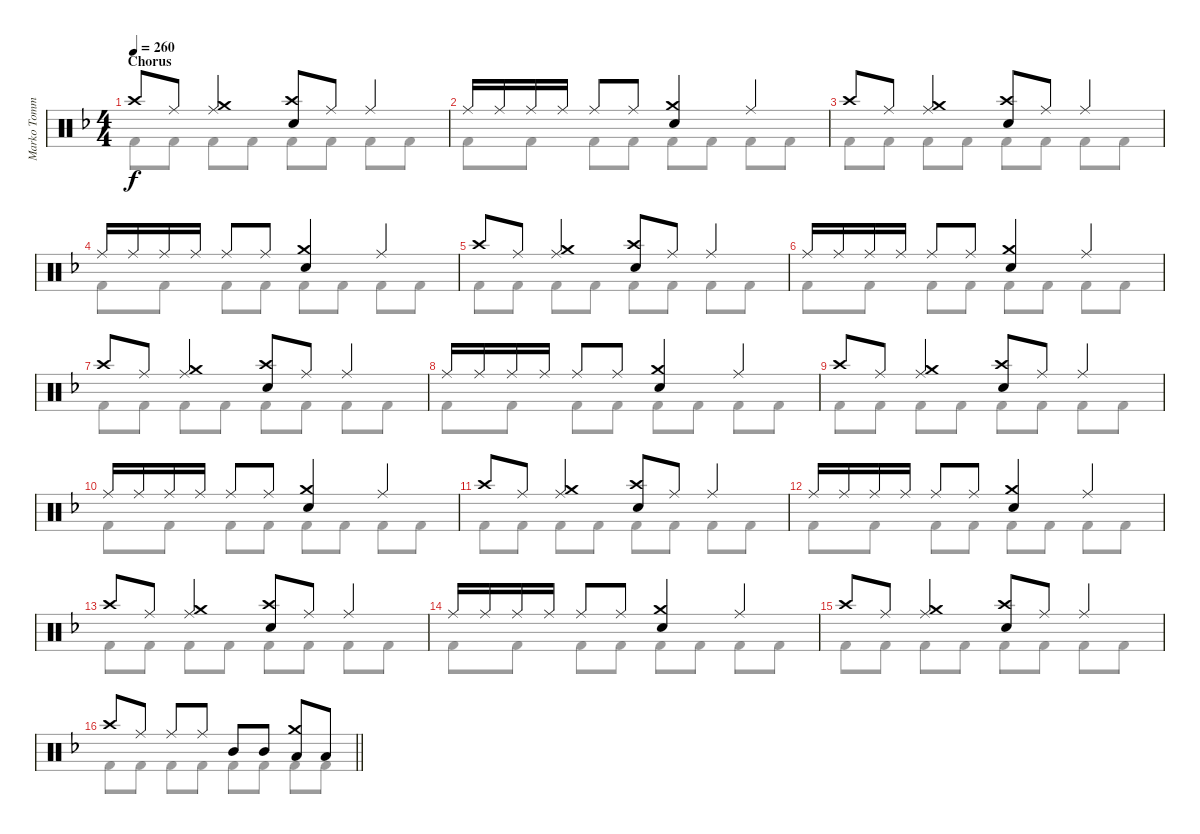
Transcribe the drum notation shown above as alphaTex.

\track ("Marko Tommila (drums)" "Marko Tomm") {instrument percussion}
\staff {score}
\articulation defaults
\voice
\ts (4 4)
\section ("" "Chorus")
\tempo 260
\clef neutral
\ks dminor "Crash high (hit)".8{dy f} "Ride (middle)".8
("Ride (middle)" "Crash medium (hit)").4 ("Crash high (hit)" "Electric Snare (hit)").8 "Ride (middle)".8 "Ride (middle)".4 |
"Ride (middle)".16 "Ride (middle)".16 "Ride (middle)".16 "Ride (middle)".16 "Ride (middle)".8 "Ride (middle)".8 ("Crash medium (hit)" "Electric Snare (hit)").4 "Ride (middle)".4 |
"Crash high (hit)".8 "Ride (middle)".8 ("Ride (middle)" "Crash medium (hit)").4 ("Crash high (hit)" "Electric Snare (hit)").8 "Ride (middle)".8 "Ride (middle)".4 |
"Ride (middle)".16 "Ride (middle)".16 "Ride (middle)".16 "Ride (middle)".16 "Ride (middle)".8 "Ride (middle)".8 ("Crash medium (hit)" "Electric Snare (hit)").4 "Ride (middle)".4 |
"Crash high (hit)".8 "Ride (middle)".8 ("Ride (middle)" "Crash medium (hit)").4 ("Crash high (hit)" "Electric Snare (hit)").8 "Ride (middle)".8 "Ride (middle)".4 |
"Ride (middle)".16 "Ride (middle)".16 "Ride (middle)".16 "Ride (middle)".16 "Ride (middle)".8 "Ride (middle)".8 ("Crash medium (hit)" "Electric Snare (hit)").4 "Ride (middle)".4 |
"Crash high (hit)".8 "Ride (middle)".8 ("Ride (middle)" "Crash medium (hit)").4 ("Crash high (hit)" "Electric Snare (hit)").8 "Ride (middle)".8 "Ride (middle)".4 |
"Ride (middle)".16 "Ride (middle)".16 "Ride (middle)".16 "Ride (middle)".16 "Ride (middle)".8 "Ride (middle)".8 ("Crash medium (hit)" "Electric Snare (hit)").4 "Ride (middle)".4 |
"Crash high (hit)".8 "Ride (middle)".8 ("Ride (middle)" "Crash medium (hit)").4 ("Crash high (hit)" "Electric Snare (hit)").8 "Ride (middle)".8 "Ride (middle)".4 |
"Ride (middle)".16 "Ride (middle)".16 "Ride (middle)".16 "Ride (middle)".16 "Ride (middle)".8 "Ride (middle)".8 ("Crash medium (hit)" "Electric Snare (hit)").4 "Ride (middle)".4 |
"Crash high (hit)".8 "Ride (middle)".8 ("Ride (middle)" "Crash medium (hit)").4 ("Crash high (hit)" "Electric Snare (hit)").8 "Ride (middle)".8 "Ride (middle)".4 |
"Ride (middle)".16 "Ride (middle)".16 "Ride (middle)".16 "Ride (middle)".16 "Ride (middle)".8 "Ride (middle)".8 ("Crash medium (hit)" "Electric Snare (hit)").4 "Ride (middle)".4 |
"Crash high (hit)".8 "Ride (middle)".8 ("Ride (middle)" "Crash medium (hit)").4 ("Crash high (hit)" "Electric Snare (hit)").8 "Ride (middle)".8 "Ride (middle)".4 |
"Ride (middle)".16 "Ride (middle)".16 "Ride (middle)".16 "Ride (middle)".16 "Ride (middle)".8 "Ride (middle)".8 ("Crash medium (hit)" "Electric Snare (hit)").4 "Ride (middle)".4 |
"Crash high (hit)".8 "Ride (middle)".8 ("Ride (middle)" "Crash medium (hit)").4 ("Crash high (hit)" "Electric Snare (hit)").8 "Ride (middle)".8 "Ride (middle)".4 |
\barLineRight lightlight "Crash high (hit)".8 "Ride (middle)".8 "Ride (middle)".8 "Ride (middle)".8 "Mid Tom (hit)".8 "Mid Tom (hit)".8
("Low Tom (hit)" "Crash medium (hit)").8 "Low Tom (hit)".8
\voice
\clef neutral
\ottava regular
\simile none
\ks dminor "Kick (hit) 2".8{dy f} "Kick (hit) 2".8 "Kick (hit) 2".8 "Kick (hit) 2".8 "Kick (hit) 2".8 "Kick (hit) 2".8 "Kick (hit) 2".8 "Kick (hit) 2".8
|
"Kick (hit) 2".8 "Kick (hit) 2".8 "Kick (hit) 2".8 "Kick (hit) 2".8 "Kick (hit) 2".8 "Kick (hit) 2".8 "Kick (hit) 2".8 "Kick (hit) 2".8 |
"Kick (hit) 2".8 "Kick (hit) 2".8 "Kick (hit) 2".8 "Kick (hit) 2".8 "Kick (hit) 2".8 "Kick (hit) 2".8 "Kick (hit) 2".8 "Kick (hit) 2".8 |
"Kick (hit) 2".8 "Kick (hit) 2".8 "Kick (hit) 2".8 "Kick (hit) 2".8 "Kick (hit) 2".8 "Kick (hit) 2".8 "Kick (hit) 2".8 "Kick (hit) 2".8 |
"Kick (hit) 2".8 "Kick (hit) 2".8 "Kick (hit) 2".8 "Kick (hit) 2".8 "Kick (hit) 2".8 "Kick (hit) 2".8 "Kick (hit) 2".8 "Kick (hit) 2".8 |
"Kick (hit) 2".8 "Kick (hit) 2".8 "Kick (hit) 2".8 "Kick (hit) 2".8 "Kick (hit) 2".8 "Kick (hit) 2".8 "Kick (hit) 2".8 "Kick (hit) 2".8 |
"Kick (hit) 2".8 "Kick (hit) 2".8 "Kick (hit) 2".8 "Kick (hit) 2".8 "Kick (hit) 2".8 "Kick (hit) 2".8 "Kick (hit) 2".8 "Kick (hit) 2".8 |
"Kick (hit) 2".8 "Kick (hit) 2".8 "Kick (hit) 2".8 "Kick (hit) 2".8 "Kick (hit) 2".8 "Kick (hit) 2".8 "Kick (hit) 2".8 "Kick (hit) 2".8 |
"Kick (hit) 2".8 "Kick (hit) 2".8 "Kick (hit) 2".8 "Kick (hit) 2".8 "Kick (hit) 2".8 "Kick (hit) 2".8 "Kick (hit) 2".8 "Kick (hit) 2".8 |
"Kick (hit) 2".8 "Kick (hit) 2".8 "Kick (hit) 2".8 "Kick (hit) 2".8 "Kick (hit) 2".8 "Kick (hit) 2".8 "Kick (hit) 2".8 "Kick (hit) 2".8 |
"Kick (hit) 2".8 "Kick (hit) 2".8 "Kick (hit) 2".8 "Kick (hit) 2".8 "Kick (hit) 2".8 "Kick (hit) 2".8 "Kick (hit) 2".8 "Kick (hit) 2".8 |
"Kick (hit) 2".8 "Kick (hit) 2".8 "Kick (hit) 2".8 "Kick (hit) 2".8 "Kick (hit) 2".8 "Kick (hit) 2".8 "Kick (hit) 2".8 "Kick (hit) 2".8 |
"Kick (hit) 2".8 "Kick (hit) 2".8 "Kick (hit) 2".8 "Kick (hit) 2".8 "Kick (hit) 2".8 "Kick (hit) 2".8 "Kick (hit) 2".8 "Kick (hit) 2".8 |
"Kick (hit) 2".8 "Kick (hit) 2".8 "Kick (hit) 2".8 "Kick (hit) 2".8 "Kick (hit) 2".8 "Kick (hit) 2".8 "Kick (hit) 2".8 "Kick (hit) 2".8 |
"Kick (hit) 2".8 "Kick (hit) 2".8 "Kick (hit) 2".8 "Kick (hit) 2".8 "Kick (hit) 2".8 "Kick (hit) 2".8 "Kick (hit) 2".8 "Kick (hit) 2".8 |
\barLineRight lightlight "Kick (hit) 2".8 "Kick (hit) 2".8 "Kick (hit) 2".8 "Kick (hit) 2".8 "Kick (hit) 2".8 "Kick (hit) 2".8 "Kick (hit) 2".8 "Kick (hit) 2".8
